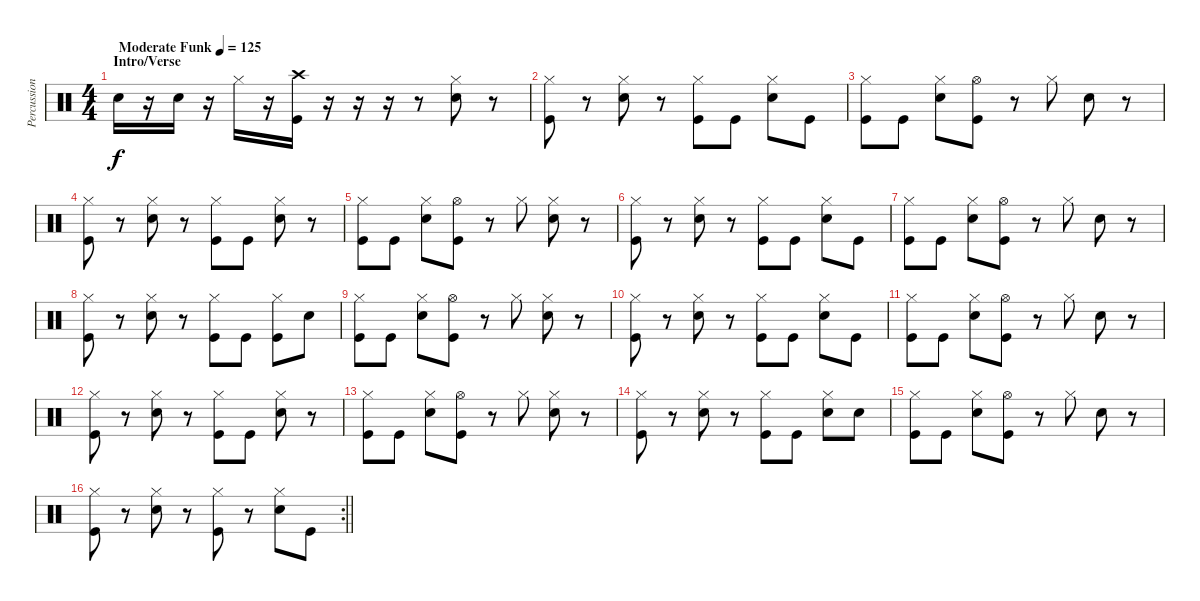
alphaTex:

\track ("Percussion" "Percussion") {instrument percussion bank 177}
\staff {score}
\articulation defaults
\ts (4 4)
\section ("" "Intro/Verse")
\tempo (125 "Moderate Funk")
\clef neutral
\ks c "Snare (hit) 2".16{dy f}
r.16 "Snare (hit) 2".16 r.16 "Hi-Hat (closed)".16 r.16 ("Crash high (hit)" "Kick (hit)").16 r.16 r.16 r.16 r.8 ("Hi-Hat (closed)" "Snare (hit) 2").8 r.8 |
("Hi-Hat (closed)" "Kick (hit)").8 r.8 ("Hi-Hat (closed)" "Snare (hit) 2").8 r.8 ("Hi-Hat (closed)" "Kick (hit)").8 "Kick (hit)".8 ("Hi-Hat (closed)" "Snare (hit) 2").8 "Kick (hit)".8 |
("Hi-Hat (closed)" "Kick (hit)").8 "Kick (hit)".8 ("Hi-Hat (closed)" "Snare (hit) 2").8 ("Hi-Hat (open)" "Kick (hit)").8 r.8 "Hi-Hat (closed)".8 "Snare (hit) 2".8 r.8 |
("Hi-Hat (closed)" "Kick (hit)").8 r.8 ("Hi-Hat (closed)" "Snare (hit) 2").8 r.8 ("Hi-Hat (closed)" "Kick (hit)").8 "Kick (hit)".8 ("Hi-Hat (closed)" "Snare (hit) 2").8 r.8 |
("Hi-Hat (closed)" "Kick (hit)").8 "Kick (hit)".8 ("Hi-Hat (closed)" "Snare (hit) 2").8 ("Hi-Hat (open)" "Kick (hit)").8 r.8 "Hi-Hat (closed)".8 ("Hi-Hat (closed)" "Snare (hit) 2").8 r.8 |
("Hi-Hat (closed)" "Kick (hit)").8 r.8 ("Hi-Hat (closed)" "Snare (hit) 2").8 r.8 ("Hi-Hat (closed)" "Kick (hit)").8 "Kick (hit)".8 ("Hi-Hat (closed)" "Snare (hit) 2").8 "Kick (hit)".8 |
("Hi-Hat (closed)" "Kick (hit)").8 "Kick (hit)".8 ("Hi-Hat (closed)" "Snare (hit) 2").8 ("Hi-Hat (open)" "Kick (hit)").8 r.8 "Hi-Hat (closed)".8 "Snare (hit) 2".8 r.8 |
("Hi-Hat (closed)" "Kick (hit)").8 r.8 ("Hi-Hat (closed)" "Snare (hit) 2").8 r.8 ("Hi-Hat (closed)" "Kick (hit)").8 "Kick (hit)".8 ("Hi-Hat (closed)" "Kick (hit)").8 "Snare (hit) 2".8 |
("Hi-Hat (closed)" "Kick (hit)").8 "Kick (hit)".8 ("Hi-Hat (closed)" "Snare (hit) 2").8 ("Hi-Hat (open)" "Kick (hit)").8 r.8 "Hi-Hat (closed)".8 ("Hi-Hat (closed)" "Snare (hit) 2").8 r.8 |
("Hi-Hat (closed)" "Kick (hit)").8 r.8 ("Hi-Hat (closed)" "Snare (hit) 2").8 r.8 ("Hi-Hat (closed)" "Kick (hit)").8 "Kick (hit)".8 ("Hi-Hat (closed)" "Snare (hit) 2").8 "Kick (hit)".8 |
("Hi-Hat (closed)" "Kick (hit)").8 "Kick (hit)".8 ("Hi-Hat (closed)" "Snare (hit) 2").8 ("Hi-Hat (open)" "Kick (hit)").8 r.8 "Hi-Hat (closed)".8 "Snare (hit) 2".8 r.8 |
("Hi-Hat (closed)" "Kick (hit)").8 r.8 ("Hi-Hat (closed)" "Snare (hit) 2").8 r.8 ("Hi-Hat (closed)" "Kick (hit)").8 "Kick (hit)".8 ("Hi-Hat (closed)" "Snare (hit) 2").8 r.8 |
("Hi-Hat (closed)" "Kick (hit)").8 "Kick (hit)".8 ("Hi-Hat (closed)" "Snare (hit) 2").8 ("Hi-Hat (open)" "Kick (hit)").8 r.8 "Hi-Hat (closed)".8 ("Hi-Hat (closed)" "Snare (hit) 2").8 r.8 |
("Hi-Hat (closed)" "Kick (hit)").8 r.8 ("Hi-Hat (closed)" "Snare (hit) 2").8 r.8 ("Hi-Hat (closed)" "Kick (hit)").8 "Kick (hit)".8 ("Hi-Hat (closed)" "Snare (hit) 2").8 "Snare (hit) 2".8 |
("Hi-Hat (closed)" "Kick (hit)").8 "Kick (hit)".8 ("Hi-Hat (closed)" "Snare (hit) 2").8 ("Hi-Hat (open)" "Kick (hit)").8 r.8 "Hi-Hat (closed)".8 "Snare (hit) 2".8 r.8 |
\rc 2
\barLineRight lightlight
("Hi-Hat (closed)" "Kick (hit)").8 r.8 ("Hi-Hat (closed)" "Snare (hit) 2").8 r.8 ("Hi-Hat (closed)" "Kick (hit)").8 r.8 ("Hi-Hat (closed)" "Snare (hit) 2").8 "Kick (hit)".8
